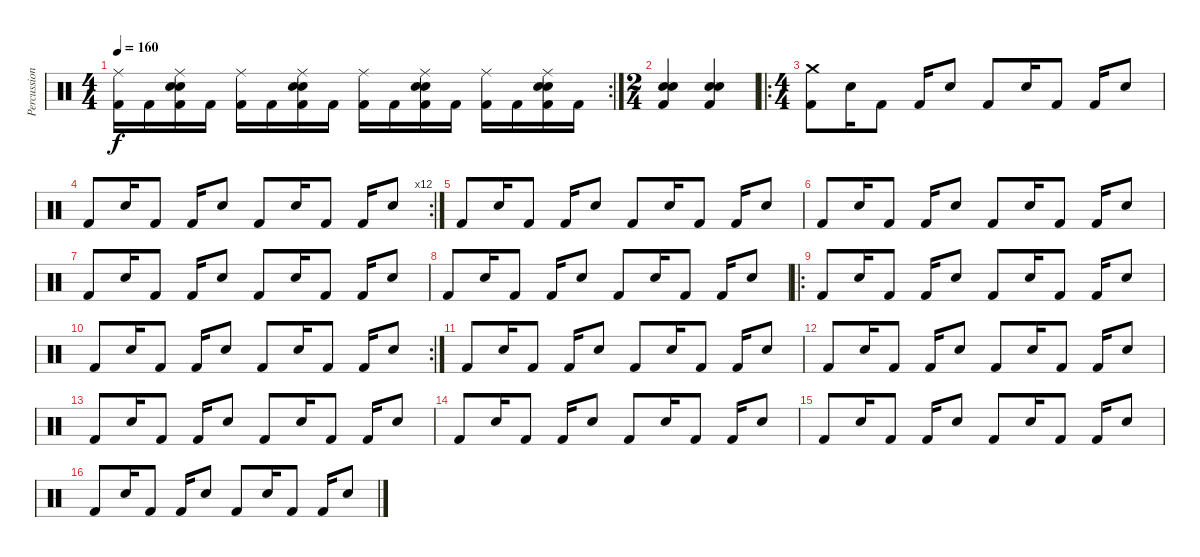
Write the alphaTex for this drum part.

\track ("Percussion" "Percussion") {instrument percussion}
\staff {score}
\articulation defaults
\rc 2
\ts (4 4)
\tempo 160
\clef neutral
\ks c
("Ride (middle)" "Kick (hit) 2").16{dy f} "Kick (hit) 2".16 ("Electric Snare (hit)" "Snare (hit) 2" "Ride (middle)" "Kick (hit) 2").16 "Kick (hit) 2".16 ("Ride (middle)" "Kick (hit) 2").16 "Kick (hit) 2".16 ("Electric Snare (hit)" "Snare (hit) 2" "Ride (middle)" "Kick (hit) 2").16 "Kick (hit) 2".16 ("Ride (middle)" "Kick (hit) 2").16 "Kick (hit) 2".16 ("Electric Snare (hit)" "Snare (hit) 2" "Ride (middle)" "Kick (hit) 2").16 "Kick (hit) 2".16 ("Ride (middle)" "Kick (hit) 2").16 "Kick (hit) 2".16 ("Electric Snare (hit)" "Snare (hit) 2" "Ride (middle)" "Kick (hit) 2").16 "Kick (hit) 2".16 |
\ts (2 4)
("Kick (hit) 2" "Snare (hit) 2" "Electric Snare (hit)").4 ("Kick (hit) 2" "Snare (hit) 2" "Electric Snare (hit)").4 |
\ro
\ts (4 4)
("Crash medium (hit)" "Kick (hit) 2").8 "Electric Snare (hit)".16 "Kick (hit) 2".8 "Kick (hit) 2".16 "Electric Snare (hit)".8 "Kick (hit) 2".8 "Electric Snare (hit)".16 "Kick (hit) 2".8 "Kick (hit) 2".16 "Electric Snare (hit)".8 |
\rc 12 "Kick (hit) 2".8 "Electric Snare (hit)".16 "Kick (hit) 2".8 "Kick (hit) 2".16 "Electric Snare (hit)".8 "Kick (hit) 2".8 "Electric Snare (hit)".16 "Kick (hit) 2".8 "Kick (hit) 2".16 "Electric Snare (hit)".8
|
"Kick (hit) 2".8 "Electric Snare (hit)".16 "Kick (hit) 2".8 "Kick (hit) 2".16 "Electric Snare (hit)".8 "Kick (hit) 2".8 "Electric Snare (hit)".16 "Kick (hit) 2".8 "Kick (hit) 2".16 "Electric Snare (hit)".8 |
"Kick (hit) 2".8 "Electric Snare (hit)".16 "Kick (hit) 2".8 "Kick (hit) 2".16 "Electric Snare (hit)".8 "Kick (hit) 2".8 "Electric Snare (hit)".16 "Kick (hit) 2".8 "Kick (hit) 2".16 "Electric Snare (hit)".8 |
"Kick (hit) 2".8 "Electric Snare (hit)".16 "Kick (hit) 2".8 "Kick (hit) 2".16 "Electric Snare (hit)".8 "Kick (hit) 2".8 "Electric Snare (hit)".16 "Kick (hit) 2".8 "Kick (hit) 2".16 "Electric Snare (hit)".8 |
"Kick (hit) 2".8 "Electric Snare (hit)".16 "Kick (hit) 2".8 "Kick (hit) 2".16 "Electric Snare (hit)".8 "Kick (hit) 2".8 "Electric Snare (hit)".16 "Kick (hit) 2".8 "Kick (hit) 2".16 "Electric Snare (hit)".8 |
\ro "Kick (hit) 2".8 "Electric Snare (hit)".16 "Kick (hit) 2".8 "Kick (hit) 2".16 "Electric Snare (hit)".8 "Kick (hit) 2".8 "Electric Snare (hit)".16 "Kick (hit) 2".8 "Kick (hit) 2".16 "Electric Snare (hit)".8
|
\rc 2 "Kick (hit) 2".8 "Electric Snare (hit)".16 "Kick (hit) 2".8 "Kick (hit) 2".16 "Electric Snare (hit)".8 "Kick (hit) 2".8 "Electric Snare (hit)".16 "Kick (hit) 2".8 "Kick (hit) 2".16 "Electric Snare (hit)".8
|
"Kick (hit) 2".8 "Electric Snare (hit)".16 "Kick (hit) 2".8 "Kick (hit) 2".16 "Electric Snare (hit)".8 "Kick (hit) 2".8 "Electric Snare (hit)".16 "Kick (hit) 2".8 "Kick (hit) 2".16 "Electric Snare (hit)".8 |
"Kick (hit) 2".8 "Electric Snare (hit)".16 "Kick (hit) 2".8 "Kick (hit) 2".16 "Electric Snare (hit)".8 "Kick (hit) 2".8 "Electric Snare (hit)".16 "Kick (hit) 2".8 "Kick (hit) 2".16 "Electric Snare (hit)".8 |
"Kick (hit) 2".8 "Electric Snare (hit)".16 "Kick (hit) 2".8 "Kick (hit) 2".16 "Electric Snare (hit)".8 "Kick (hit) 2".8 "Electric Snare (hit)".16 "Kick (hit) 2".8 "Kick (hit) 2".16 "Electric Snare (hit)".8 |
"Kick (hit) 2".8 "Electric Snare (hit)".16 "Kick (hit) 2".8 "Kick (hit) 2".16 "Electric Snare (hit)".8 "Kick (hit) 2".8 "Electric Snare (hit)".16 "Kick (hit) 2".8 "Kick (hit) 2".16 "Electric Snare (hit)".8 |
"Kick (hit) 2".8 "Electric Snare (hit)".16 "Kick (hit) 2".8 "Kick (hit) 2".16 "Electric Snare (hit)".8 "Kick (hit) 2".8 "Electric Snare (hit)".16 "Kick (hit) 2".8 "Kick (hit) 2".16 "Electric Snare (hit)".8 |
"Kick (hit) 2".8 "Electric Snare (hit)".16 "Kick (hit) 2".8 "Kick (hit) 2".16 "Electric Snare (hit)".8 "Kick (hit) 2".8 "Electric Snare (hit)".16 "Kick (hit) 2".8 "Kick (hit) 2".16 "Electric Snare (hit)".8
